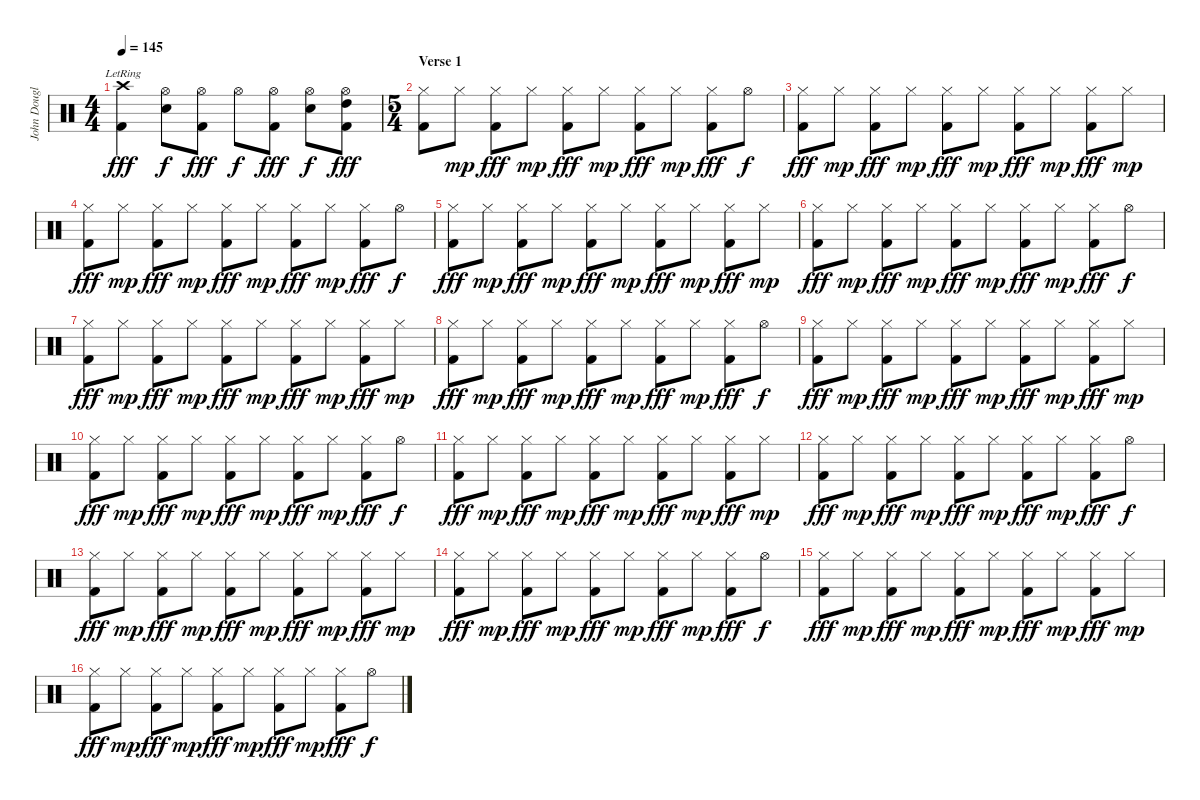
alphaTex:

\track ("John Douglas (Drums)" "John Dougl") {instrument percussion}
\staff {score}
\articulation defaults
\ts (4 4)
\tempo 145
\clef neutral
\ks c
("Crash high (hit)"{lr} "Kick (hit) 2").4{dy fff} ("Hi-Hat (open)" "Snare (hit) 2").8{dy f} ("Hi-Hat (open)" "Kick (hit) 2").8{dy fff} "Hi-Hat (open)".8{dy f} ("Hi-Hat (open)" "Kick (hit) 2").8{dy fff} ("Hi-Hat (open)" "Snare (hit) 2").8{dy f} ("Hi-Hat (open)" "High Tom (hit)" "Kick (hit) 2").8{dy fff} |
\ts (5 4)
\section ("" "Verse 1")
("Hi-Hat (closed)" "Kick (hit) 2").8 "Hi-Hat (closed)".8{dy mp} ("Hi-Hat (closed)" "Kick (hit) 2").8{dy fff} "Hi-Hat (closed)".8{dy mp} ("Hi-Hat (closed)" "Kick (hit) 2").8{dy fff} "Hi-Hat (closed)".8{dy mp} ("Hi-Hat (closed)" "Kick (hit) 2").8{dy fff} "Hi-Hat (closed)".8{dy mp} ("Hi-Hat (closed)" "Kick (hit) 2").8{dy fff} "Hi-Hat (open)".8{dy f} |
("Hi-Hat (closed)" "Kick (hit) 2").8{dy fff} "Hi-Hat (closed)".8{dy mp} ("Hi-Hat (closed)" "Kick (hit) 2").8{dy fff} "Hi-Hat (closed)".8{dy mp} ("Hi-Hat (closed)" "Kick (hit) 2").8{dy fff} "Hi-Hat (closed)".8{dy mp} ("Hi-Hat (closed)" "Kick (hit) 2").8{dy fff} "Hi-Hat (closed)".8{dy mp} ("Hi-Hat (closed)" "Kick (hit) 2").8{dy fff} "Hi-Hat (closed)".8{dy mp} |
("Hi-Hat (closed)" "Kick (hit) 2").8{dy fff} "Hi-Hat (closed)".8{dy mp} ("Hi-Hat (closed)" "Kick (hit) 2").8{dy fff} "Hi-Hat (closed)".8{dy mp} ("Hi-Hat (closed)" "Kick (hit) 2").8{dy fff} "Hi-Hat (closed)".8{dy mp} ("Hi-Hat (closed)" "Kick (hit) 2").8{dy fff} "Hi-Hat (closed)".8{dy mp} ("Hi-Hat (closed)" "Kick (hit) 2").8{dy fff} "Hi-Hat (open)".8{dy f} |
("Hi-Hat (closed)" "Kick (hit) 2").8{dy fff} "Hi-Hat (closed)".8{dy mp} ("Hi-Hat (closed)" "Kick (hit) 2").8{dy fff} "Hi-Hat (closed)".8{dy mp} ("Hi-Hat (closed)" "Kick (hit) 2").8{dy fff} "Hi-Hat (closed)".8{dy mp} ("Hi-Hat (closed)" "Kick (hit) 2").8{dy fff} "Hi-Hat (closed)".8{dy mp} ("Hi-Hat (closed)" "Kick (hit) 2").8{dy fff} "Hi-Hat (closed)".8{dy mp} |
("Hi-Hat (closed)" "Kick (hit) 2").8{dy fff} "Hi-Hat (closed)".8{dy mp} ("Hi-Hat (closed)" "Kick (hit) 2").8{dy fff} "Hi-Hat (closed)".8{dy mp} ("Hi-Hat (closed)" "Kick (hit) 2").8{dy fff} "Hi-Hat (closed)".8{dy mp} ("Hi-Hat (closed)" "Kick (hit) 2").8{dy fff} "Hi-Hat (closed)".8{dy mp} ("Hi-Hat (closed)" "Kick (hit) 2").8{dy fff} "Hi-Hat (open)".8{dy f} |
("Hi-Hat (closed)" "Kick (hit) 2").8{dy fff} "Hi-Hat (closed)".8{dy mp} ("Hi-Hat (closed)" "Kick (hit) 2").8{dy fff} "Hi-Hat (closed)".8{dy mp} ("Hi-Hat (closed)" "Kick (hit) 2").8{dy fff} "Hi-Hat (closed)".8{dy mp} ("Hi-Hat (closed)" "Kick (hit) 2").8{dy fff} "Hi-Hat (closed)".8{dy mp} ("Hi-Hat (closed)" "Kick (hit) 2").8{dy fff} "Hi-Hat (closed)".8{dy mp} |
("Hi-Hat (closed)" "Kick (hit) 2").8{dy fff} "Hi-Hat (closed)".8{dy mp} ("Hi-Hat (closed)" "Kick (hit) 2").8{dy fff} "Hi-Hat (closed)".8{dy mp} ("Hi-Hat (closed)" "Kick (hit) 2").8{dy fff} "Hi-Hat (closed)".8{dy mp} ("Hi-Hat (closed)" "Kick (hit) 2").8{dy fff} "Hi-Hat (closed)".8{dy mp} ("Hi-Hat (closed)" "Kick (hit) 2").8{dy fff} "Hi-Hat (open)".8{dy f} |
("Hi-Hat (closed)" "Kick (hit) 2").8{dy fff} "Hi-Hat (closed)".8{dy mp} ("Hi-Hat (closed)" "Kick (hit) 2").8{dy fff} "Hi-Hat (closed)".8{dy mp} ("Hi-Hat (closed)" "Kick (hit) 2").8{dy fff} "Hi-Hat (closed)".8{dy mp} ("Hi-Hat (closed)" "Kick (hit) 2").8{dy fff} "Hi-Hat (closed)".8{dy mp} ("Hi-Hat (closed)" "Kick (hit) 2").8{dy fff} "Hi-Hat (closed)".8{dy mp} |
("Hi-Hat (closed)" "Kick (hit) 2").8{dy fff} "Hi-Hat (closed)".8{dy mp} ("Hi-Hat (closed)" "Kick (hit) 2").8{dy fff} "Hi-Hat (closed)".8{dy mp} ("Hi-Hat (closed)" "Kick (hit) 2").8{dy fff} "Hi-Hat (closed)".8{dy mp} ("Hi-Hat (closed)" "Kick (hit) 2").8{dy fff} "Hi-Hat (closed)".8{dy mp} ("Hi-Hat (closed)" "Kick (hit) 2").8{dy fff} "Hi-Hat (open)".8{dy f} |
("Hi-Hat (closed)" "Kick (hit) 2").8{dy fff} "Hi-Hat (closed)".8{dy mp} ("Hi-Hat (closed)" "Kick (hit) 2").8{dy fff} "Hi-Hat (closed)".8{dy mp} ("Hi-Hat (closed)" "Kick (hit) 2").8{dy fff} "Hi-Hat (closed)".8{dy mp} ("Hi-Hat (closed)" "Kick (hit) 2").8{dy fff} "Hi-Hat (closed)".8{dy mp} ("Hi-Hat (closed)" "Kick (hit) 2").8{dy fff} "Hi-Hat (closed)".8{dy mp} |
("Hi-Hat (closed)" "Kick (hit) 2").8{dy fff} "Hi-Hat (closed)".8{dy mp} ("Hi-Hat (closed)" "Kick (hit) 2").8{dy fff} "Hi-Hat (closed)".8{dy mp} ("Hi-Hat (closed)" "Kick (hit) 2").8{dy fff} "Hi-Hat (closed)".8{dy mp} ("Hi-Hat (closed)" "Kick (hit) 2").8{dy fff} "Hi-Hat (closed)".8{dy mp} ("Hi-Hat (closed)" "Kick (hit) 2").8{dy fff} "Hi-Hat (open)".8{dy f} |
("Hi-Hat (closed)" "Kick (hit) 2").8{dy fff} "Hi-Hat (closed)".8{dy mp} ("Hi-Hat (closed)" "Kick (hit) 2").8{dy fff} "Hi-Hat (closed)".8{dy mp} ("Hi-Hat (closed)" "Kick (hit) 2").8{dy fff} "Hi-Hat (closed)".8{dy mp} ("Hi-Hat (closed)" "Kick (hit) 2").8{dy fff} "Hi-Hat (closed)".8{dy mp} ("Hi-Hat (closed)" "Kick (hit) 2").8{dy fff} "Hi-Hat (closed)".8{dy mp} |
("Hi-Hat (closed)" "Kick (hit) 2").8{dy fff} "Hi-Hat (closed)".8{dy mp} ("Hi-Hat (closed)" "Kick (hit) 2").8{dy fff} "Hi-Hat (closed)".8{dy mp} ("Hi-Hat (closed)" "Kick (hit) 2").8{dy fff} "Hi-Hat (closed)".8{dy mp} ("Hi-Hat (closed)" "Kick (hit) 2").8{dy fff} "Hi-Hat (closed)".8{dy mp} ("Hi-Hat (closed)" "Kick (hit) 2").8{dy fff} "Hi-Hat (open)".8{dy f} |
("Hi-Hat (closed)" "Kick (hit) 2").8{dy fff} "Hi-Hat (closed)".8{dy mp} ("Hi-Hat (closed)" "Kick (hit) 2").8{dy fff} "Hi-Hat (closed)".8{dy mp} ("Hi-Hat (closed)" "Kick (hit) 2").8{dy fff} "Hi-Hat (closed)".8{dy mp} ("Hi-Hat (closed)" "Kick (hit) 2").8{dy fff} "Hi-Hat (closed)".8{dy mp} ("Hi-Hat (closed)" "Kick (hit) 2").8{dy fff} "Hi-Hat (closed)".8{dy mp} |
("Hi-Hat (closed)" "Kick (hit) 2").8{dy fff} "Hi-Hat (closed)".8{dy mp} ("Hi-Hat (closed)" "Kick (hit) 2").8{dy fff} "Hi-Hat (closed)".8{dy mp} ("Hi-Hat (closed)" "Kick (hit) 2").8{dy fff} "Hi-Hat (closed)".8{dy mp} ("Hi-Hat (closed)" "Kick (hit) 2").8{dy fff} "Hi-Hat (closed)".8{dy mp} ("Hi-Hat (closed)" "Kick (hit) 2").8{dy fff} "Hi-Hat (open)".8{dy f}
